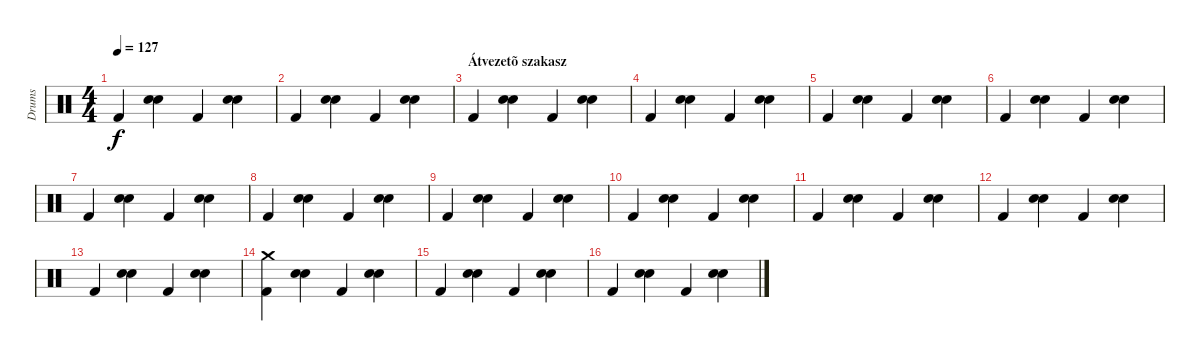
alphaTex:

\track ("Drums" "Drums") {instrument percussion}
\staff {score}
\articulation defaults
\ts (4 4)
\tempo 127
\clef neutral
\ks c "Kick (hit) 2".4{dy f}
("Electric Snare (hit)" "Hand Clap (hit)").4 "Kick (hit) 2".4 ("Electric Snare (hit)" "Hand Clap (hit)").4 |
"Kick (hit) 2".4 ("Electric Snare (hit)" "Hand Clap (hit)").4 "Kick (hit) 2".4 ("Electric Snare (hit)" "Hand Clap (hit)").4 |
\section ("" "Átvezetõ szakasz")
"Kick (hit) 2".4 ("Electric Snare (hit)" "Hand Clap (hit)").4 "Kick (hit) 2".4 ("Electric Snare (hit)" "Hand Clap (hit)").4 |
"Kick (hit) 2".4 ("Electric Snare (hit)" "Hand Clap (hit)").4 "Kick (hit) 2".4 ("Electric Snare (hit)" "Hand Clap (hit)").4 |
"Kick (hit) 2".4 ("Electric Snare (hit)" "Hand Clap (hit)").4 "Kick (hit) 2".4 ("Electric Snare (hit)" "Hand Clap (hit)").4 |
"Kick (hit) 2".4 ("Electric Snare (hit)" "Hand Clap (hit)").4 "Kick (hit) 2".4 ("Electric Snare (hit)" "Hand Clap (hit)").4 |
"Kick (hit) 2".4 ("Electric Snare (hit)" "Hand Clap (hit)").4 "Kick (hit) 2".4 ("Electric Snare (hit)" "Hand Clap (hit)").4 |
"Kick (hit) 2".4 ("Electric Snare (hit)" "Hand Clap (hit)").4 "Kick (hit) 2".4 ("Electric Snare (hit)" "Hand Clap (hit)").4 |
"Kick (hit) 2".4 ("Electric Snare (hit)" "Hand Clap (hit)").4 "Kick (hit) 2".4 ("Electric Snare (hit)" "Hand Clap (hit)").4 |
"Kick (hit) 2".4 ("Electric Snare (hit)" "Hand Clap (hit)").4 "Kick (hit) 2".4 ("Electric Snare (hit)" "Hand Clap (hit)").4 |
"Kick (hit) 2".4 ("Electric Snare (hit)" "Hand Clap (hit)").4 "Kick (hit) 2".4 ("Electric Snare (hit)" "Hand Clap (hit)").4 |
"Kick (hit) 2".4 ("Electric Snare (hit)" "Hand Clap (hit)").4 "Kick (hit) 2".4 ("Electric Snare (hit)" "Hand Clap (hit)").4 |
"Kick (hit) 2".4 ("Electric Snare (hit)" "Hand Clap (hit)").4 "Kick (hit) 2".4 ("Electric Snare (hit)" "Hand Clap (hit)").4 |
("Kick (hit) 2" "Crash medium (hit)").4 ("Electric Snare (hit)" "Hand Clap (hit)").4 "Kick (hit) 2".4 ("Electric Snare (hit)" "Hand Clap (hit)").4 |
"Kick (hit) 2".4 ("Electric Snare (hit)" "Hand Clap (hit)").4 "Kick (hit) 2".4 ("Electric Snare (hit)" "Hand Clap (hit)").4 |
"Kick (hit) 2".4 ("Electric Snare (hit)" "Hand Clap (hit)").4 "Kick (hit) 2".4 ("Electric Snare (hit)" "Hand Clap (hit)").4
